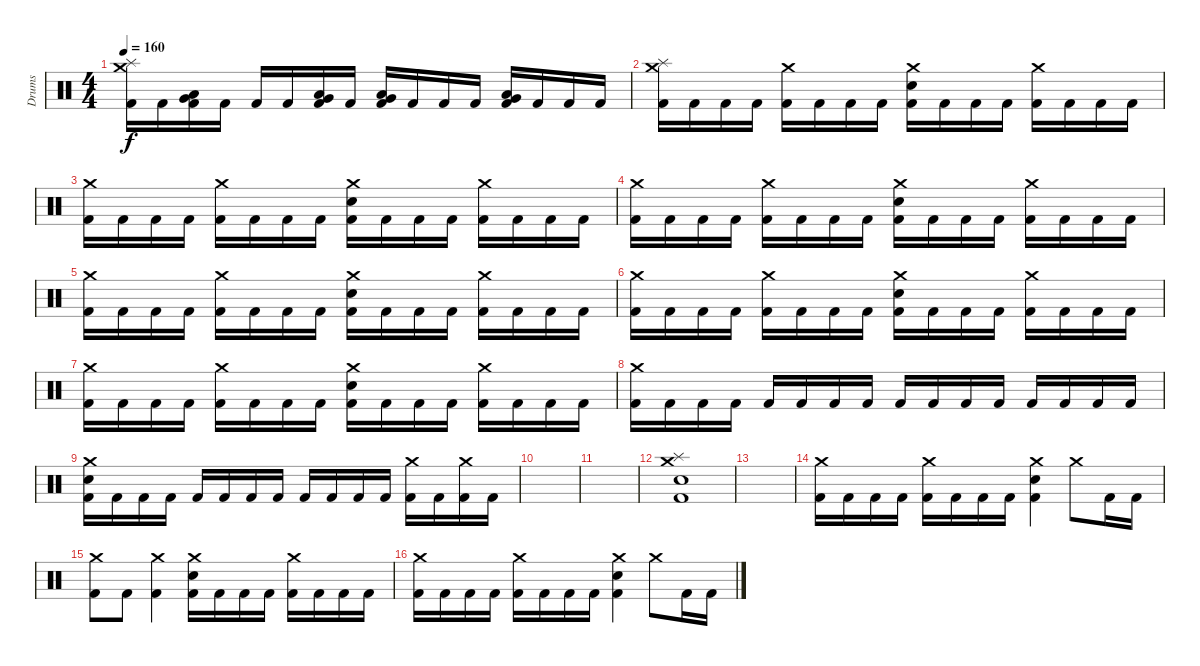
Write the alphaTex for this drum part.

\track ("Drums" "Drums") {instrument percussion}
\staff {score}
\articulation defaults
\ts (4 4)
\tempo 160
\clef neutral
\ks c
("Crash medium (hit)" "Splash (hit)" "Kick (hit) 2").16{dy f} "Kick (hit) 2".16 ("Very Low Tom (hit)" "Low Floor Tom (hit)" "Kick (hit) 2").16 "Kick (hit) 2".16 "Kick (hit) 2".16 "Kick (hit) 2".16 ("Very Low Tom (hit)" "Low Floor Tom (hit)" "Kick (hit) 2").16 "Kick (hit) 2".16 ("Very Low Tom (hit)" "Low Floor Tom (hit)" "Kick (hit) 2").16 "Kick (hit) 2".16 "Kick (hit) 2".16 "Kick (hit) 2".16 ("Very Low Tom (hit)" "Low Floor Tom (hit)" "Kick (hit) 2").16 "Kick (hit) 2".16 "Kick (hit) 2".16 "Kick (hit) 2".16 |
("Crash medium (hit)" "Splash (hit)" "Kick (hit) 2").16 "Kick (hit) 2".16 "Kick (hit) 2".16 "Kick (hit) 2".16 ("Crash medium (hit)" "Kick (hit) 2").16 "Kick (hit) 2".16 "Kick (hit) 2".16 "Kick (hit) 2".16 ("Crash medium (hit)" "Electric Snare (hit)" "Kick (hit) 2").16 "Kick (hit) 2".16 "Kick (hit) 2".16 "Kick (hit) 2".16 ("Crash medium (hit)" "Kick (hit) 2").16 "Kick (hit) 2".16 "Kick (hit) 2".16 "Kick (hit) 2".16 |
("Crash medium (hit)" "Kick (hit) 2").16 "Kick (hit) 2".16 "Kick (hit) 2".16 "Kick (hit) 2".16 ("Crash medium (hit)" "Kick (hit) 2").16 "Kick (hit) 2".16 "Kick (hit) 2".16 "Kick (hit) 2".16 ("Crash medium (hit)" "Electric Snare (hit)" "Kick (hit) 2").16 "Kick (hit) 2".16 "Kick (hit) 2".16 "Kick (hit) 2".16 ("Crash medium (hit)" "Kick (hit) 2").16 "Kick (hit) 2".16 "Kick (hit) 2".16 "Kick (hit) 2".16 |
("Crash medium (hit)" "Kick (hit) 2").16 "Kick (hit) 2".16 "Kick (hit) 2".16 "Kick (hit) 2".16 ("Crash medium (hit)" "Kick (hit) 2").16 "Kick (hit) 2".16 "Kick (hit) 2".16 "Kick (hit) 2".16 ("Crash medium (hit)" "Electric Snare (hit)" "Kick (hit) 2").16 "Kick (hit) 2".16 "Kick (hit) 2".16 "Kick (hit) 2".16 ("Crash medium (hit)" "Kick (hit) 2").16 "Kick (hit) 2".16 "Kick (hit) 2".16 "Kick (hit) 2".16 |
("Crash medium (hit)" "Kick (hit) 2").16 "Kick (hit) 2".16 "Kick (hit) 2".16 "Kick (hit) 2".16 ("Crash medium (hit)" "Kick (hit) 2").16 "Kick (hit) 2".16 "Kick (hit) 2".16 "Kick (hit) 2".16 ("Crash medium (hit)" "Electric Snare (hit)" "Kick (hit) 2").16 "Kick (hit) 2".16 "Kick (hit) 2".16 "Kick (hit) 2".16 ("Crash medium (hit)" "Kick (hit) 2").16 "Kick (hit) 2".16 "Kick (hit) 2".16 "Kick (hit) 2".16 |
("Crash medium (hit)" "Kick (hit) 2").16 "Kick (hit) 2".16 "Kick (hit) 2".16 "Kick (hit) 2".16 ("Crash medium (hit)" "Kick (hit) 2").16 "Kick (hit) 2".16 "Kick (hit) 2".16 "Kick (hit) 2".16 ("Crash medium (hit)" "Electric Snare (hit)" "Kick (hit) 2").16 "Kick (hit) 2".16 "Kick (hit) 2".16 "Kick (hit) 2".16 ("Crash medium (hit)" "Kick (hit) 2").16 "Kick (hit) 2".16 "Kick (hit) 2".16 "Kick (hit) 2".16 |
("Crash medium (hit)" "Kick (hit) 2").16 "Kick (hit) 2".16 "Kick (hit) 2".16 "Kick (hit) 2".16 ("Crash medium (hit)" "Kick (hit) 2").16 "Kick (hit) 2".16 "Kick (hit) 2".16 "Kick (hit) 2".16 ("Crash medium (hit)" "Electric Snare (hit)" "Kick (hit) 2").16 "Kick (hit) 2".16 "Kick (hit) 2".16 "Kick (hit) 2".16 ("Crash medium (hit)" "Kick (hit) 2").16 "Kick (hit) 2".16 "Kick (hit) 2".16 "Kick (hit) 2".16 |
("Crash medium (hit)" "Kick (hit) 2").16 "Kick (hit) 2".16 "Kick (hit) 2".16 "Kick (hit) 2".16 "Kick (hit) 2".16 "Kick (hit) 2".16 "Kick (hit) 2".16 "Kick (hit) 2".16 "Kick (hit) 2".16 "Kick (hit) 2".16 "Kick (hit) 2".16 "Kick (hit) 2".16 "Kick (hit) 2".16 "Kick (hit) 2".16 "Kick (hit) 2".16 "Kick (hit) 2".16 |
("Crash medium (hit)" "Electric Snare (hit)" "Kick (hit) 2").16 "Kick (hit) 2".16 "Kick (hit) 2".16 "Kick (hit) 2".16 "Kick (hit) 2".16 "Kick (hit) 2".16 "Kick (hit) 2".16 "Kick (hit) 2".16 "Kick (hit) 2".16 "Kick (hit) 2".16 "Kick (hit) 2".16 "Kick (hit) 2".16 ("Crash medium (hit)" "Kick (hit) 2").16 "Kick (hit) 2".16 ("Crash medium (hit)" "Kick (hit) 2").16 "Kick (hit) 2".16 |
|
|
("Crash medium (hit)" "Splash (hit)" "Electric Snare (hit)" "Kick (hit) 2").1 |
|
("Crash medium (hit)" "Kick (hit) 2").16 "Kick (hit) 2".16 "Kick (hit) 2".16 "Kick (hit) 2".16 ("Crash medium (hit)" "Kick (hit) 2").16 "Kick (hit) 2".16 "Kick (hit) 2".16 "Kick (hit) 2".16 ("Crash medium (hit)" "Electric Snare (hit)" "Kick (hit) 2").4 "Crash medium (hit)".8 "Kick (hit) 2".16 "Kick (hit) 2".16 |
("Crash medium (hit)" "Kick (hit) 2").8 "Kick (hit) 2".8 ("Crash medium (hit)" "Kick (hit) 2").4 ("Crash medium (hit)" "Electric Snare (hit)" "Kick (hit) 2").16 "Kick (hit) 2".16 "Kick (hit) 2".16 "Kick (hit) 2".16 ("Crash medium (hit)" "Kick (hit) 2").16 "Kick (hit) 2".16 "Kick (hit) 2".16 "Kick (hit) 2".16 |
("Crash medium (hit)" "Kick (hit) 2").16 "Kick (hit) 2".16 "Kick (hit) 2".16 "Kick (hit) 2".16 ("Crash medium (hit)" "Kick (hit) 2").16 "Kick (hit) 2".16 "Kick (hit) 2".16 "Kick (hit) 2".16 ("Crash medium (hit)" "Electric Snare (hit)" "Kick (hit) 2").4 "Crash medium (hit)".8 "Kick (hit) 2".16 "Kick (hit) 2".16
